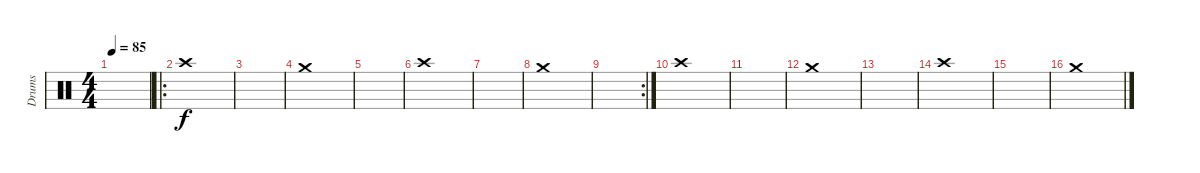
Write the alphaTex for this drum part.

\track ("Drums" "Drums") {instrument percussion}
\staff {score}
\articulation defaults
\ts (4 4)
\tempo 85
\clef neutral
\ks c
|
\ro "Crash high (hit)".1
|
|
"Crash medium (hit)".1 |
|
"Crash high (hit)".1 |
|
"Crash medium (hit)".1 |
\rc 2
|
"Crash high (hit)".1 |
|
"Crash medium (hit)".1 |
|
"Crash high (hit)".1 |
|
"Crash medium (hit)".1
